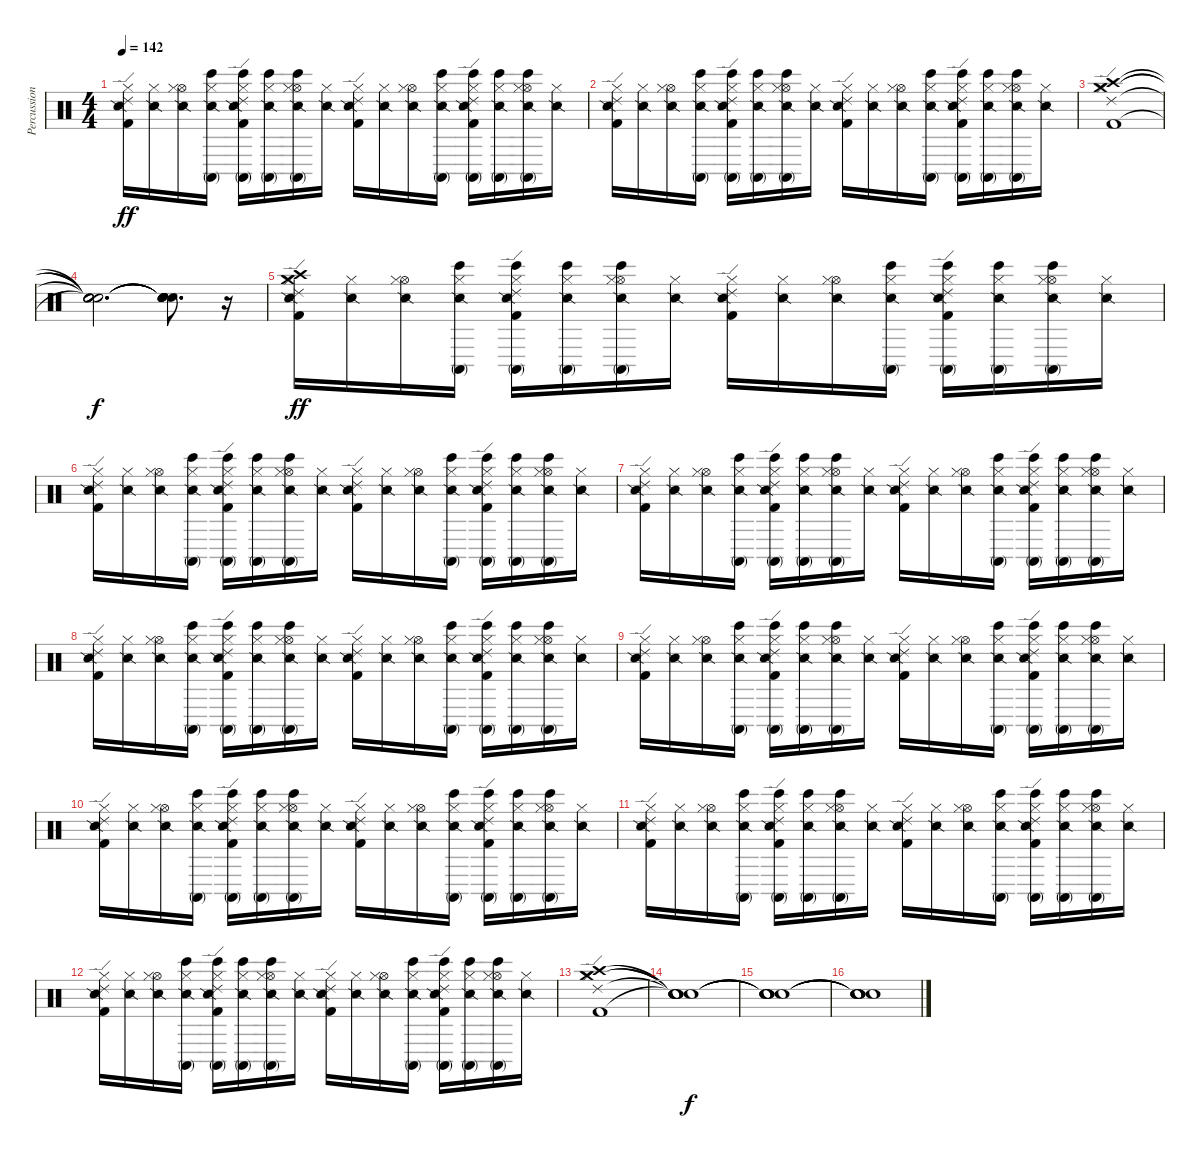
\track ("Percussion" "Percussion") {instrument percussion}
\staff {score}
\articulation defaults
\ts (4 4)
\tempo 142
\clef neutral
\ks c
("Ride (edge) 2" "Hi-Hat (closed)" "Snare (side stick) 2" "Kick (hit) 2").16{dy ff} ("Hi-Hat (closed)" "Snare (side stick) 2").16 ("Hi-Hat (open)" "Hi-Hat (closed)" "Snare (side stick) 2").16 ("Conga high (mute)" "Bongo High (hit)" "Hi-Hat (closed)" "Snare (side stick) 2").16 ("Conga high (mute)" "Bongo High (hit)" "Ride (edge) 2" "Hi-Hat (closed)" "Snare (side stick) 2" "Kick (hit) 2").16 ("Conga high (mute)" "Bongo High (hit)" "Hi-Hat (closed)" "Snare (side stick) 2").16 ("Conga high (mute)" "Bongo High (hit)" "Hi-Hat (open)" "Hi-Hat (closed)" "Snare (side stick) 2").16 ("Hi-Hat (closed)" "Snare (side stick) 2").16 ("Ride (edge) 2" "Hi-Hat (closed)" "Snare (side stick) 2" "Kick (hit) 2").16 ("Hi-Hat (closed)" "Snare (side stick) 2").16 ("Hi-Hat (open)" "Hi-Hat (closed)" "Snare (side stick) 2").16 ("Conga high (mute)" "Bongo High (hit)" "Hi-Hat (closed)" "Snare (side stick) 2").16 ("Conga high (mute)" "Bongo High (hit)" "Ride (edge) 2" "Hi-Hat (closed)" "Snare (side stick) 2" "Kick (hit) 2").16 ("Conga high (mute)" "Bongo High (hit)" "Hi-Hat (closed)" "Snare (side stick) 2").16 ("Conga high (mute)" "Bongo High (hit)" "Hi-Hat (open)" "Hi-Hat (closed)" "Snare (side stick) 2").16 ("Hi-Hat (closed)" "Snare (side stick) 2").16 |
("Ride (edge) 2" "Hi-Hat (closed)" "Snare (side stick) 2" "Kick (hit) 2").16 ("Hi-Hat (closed)" "Snare (side stick) 2").16 ("Hi-Hat (open)" "Hi-Hat (closed)" "Snare (side stick) 2").16 ("Conga high (mute)" "Bongo High (hit)" "Hi-Hat (closed)" "Snare (side stick) 2").16 ("Conga high (mute)" "Bongo High (hit)" "Ride (edge) 2" "Hi-Hat (closed)" "Snare (side stick) 2" "Kick (hit) 2").16 ("Conga high (mute)" "Bongo High (hit)" "Hi-Hat (closed)" "Snare (side stick) 2").16 ("Conga high (mute)" "Bongo High (hit)" "Hi-Hat (open)" "Hi-Hat (closed)" "Snare (side stick) 2").16 ("Hi-Hat (closed)" "Snare (side stick) 2").16 ("Ride (edge) 2" "Hi-Hat (closed)" "Snare (side stick) 2" "Kick (hit) 2").16 ("Hi-Hat (closed)" "Snare (side stick) 2").16 ("Hi-Hat (open)" "Hi-Hat (closed)" "Snare (side stick) 2").16 ("Conga high (mute)" "Bongo High (hit)" "Hi-Hat (closed)" "Snare (side stick) 2").16 ("Conga high (mute)" "Bongo High (hit)" "Ride (edge) 2" "Hi-Hat (closed)" "Snare (side stick) 2" "Kick (hit) 2").16 ("Conga high (mute)" "Bongo High (hit)" "Hi-Hat (closed)" "Snare (side stick) 2").16 ("Conga high (mute)" "Bongo High (hit)" "Hi-Hat (open)" "Hi-Hat (closed)" "Snare (side stick) 2").16 ("Hi-Hat (closed)" "Snare (side stick) 2").16 |
("Ride (edge) 2" "Crash medium (hit)" "Crash high (hit)" "Hi-Hat (closed)" "Kick (hit) 2").1 |
("Snare (hit)"{t} "Snare (hit)"{t} "Snare (hit)"{t} "Snare (hit)"{t} "Snare (hit)"{t}).2{d dy f} ("Snare (hit)"{t} "Snare (hit)"{t} "Snare (hit)"{t} "Snare (hit)"{t} "Snare (hit)"{t}).8{d} r.16 |
("Ride (edge) 2" "Crash medium (hit)" "Crash high (hit)" "Hi-Hat (closed)" "Snare (side stick) 2" "Kick (hit) 2").16{dy ff} ("Hi-Hat (closed)" "Snare (side stick) 2").16 ("Hi-Hat (open)" "Hi-Hat (closed)" "Snare (side stick) 2").16 ("Conga high (mute)" "Bongo High (hit)" "Hi-Hat (closed)" "Snare (side stick) 2").16 ("Conga high (mute)" "Bongo High (hit)" "Ride (edge) 2" "Hi-Hat (closed)" "Snare (side stick) 2" "Kick (hit) 2").16 ("Conga high (mute)" "Bongo High (hit)" "Hi-Hat (closed)" "Snare (side stick) 2").16 ("Conga high (mute)" "Bongo High (hit)" "Hi-Hat (open)" "Hi-Hat (closed)" "Snare (side stick) 2").16 ("Hi-Hat (closed)" "Snare (side stick) 2").16 ("Ride (edge) 2" "Hi-Hat (closed)" "Snare (side stick) 2" "Kick (hit) 2").16 ("Hi-Hat (closed)" "Snare (side stick) 2").16 ("Hi-Hat (open)" "Hi-Hat (closed)" "Snare (side stick) 2").16 ("Conga high (mute)" "Bongo High (hit)" "Hi-Hat (closed)" "Snare (side stick) 2").16 ("Conga high (mute)" "Bongo High (hit)" "Ride (edge) 2" "Hi-Hat (closed)" "Snare (side stick) 2" "Kick (hit) 2").16 ("Conga high (mute)" "Bongo High (hit)" "Hi-Hat (closed)" "Snare (side stick) 2").16 ("Conga high (mute)" "Bongo High (hit)" "Hi-Hat (open)" "Hi-Hat (closed)" "Snare (side stick) 2").16 ("Hi-Hat (closed)" "Snare (side stick) 2").16 |
("Ride (edge) 2" "Hi-Hat (closed)" "Snare (side stick) 2" "Kick (hit) 2").16 ("Hi-Hat (closed)" "Snare (side stick) 2").16 ("Hi-Hat (open)" "Hi-Hat (closed)" "Snare (side stick) 2").16 ("Conga high (mute)" "Bongo High (hit)" "Hi-Hat (closed)" "Snare (side stick) 2").16 ("Conga high (mute)" "Bongo High (hit)" "Ride (edge) 2" "Hi-Hat (closed)" "Snare (side stick) 2" "Kick (hit) 2").16 ("Conga high (mute)" "Bongo High (hit)" "Hi-Hat (closed)" "Snare (side stick) 2").16 ("Conga high (mute)" "Bongo High (hit)" "Hi-Hat (open)" "Hi-Hat (closed)" "Snare (side stick) 2").16 ("Hi-Hat (closed)" "Snare (side stick) 2").16 ("Ride (edge) 2" "Hi-Hat (closed)" "Snare (side stick) 2" "Kick (hit) 2").16 ("Hi-Hat (closed)" "Snare (side stick) 2").16 ("Hi-Hat (open)" "Hi-Hat (closed)" "Snare (side stick) 2").16 ("Conga high (mute)" "Bongo High (hit)" "Hi-Hat (closed)" "Snare (side stick) 2").16 ("Conga high (mute)" "Bongo High (hit)" "Ride (edge) 2" "Hi-Hat (closed)" "Snare (side stick) 2" "Kick (hit) 2").16 ("Conga high (mute)" "Bongo High (hit)" "Hi-Hat (closed)" "Snare (side stick) 2").16 ("Conga high (mute)" "Bongo High (hit)" "Hi-Hat (open)" "Hi-Hat (closed)" "Snare (side stick) 2").16 ("Hi-Hat (closed)" "Snare (side stick) 2").16 |
("Ride (edge) 2" "Hi-Hat (closed)" "Snare (side stick) 2" "Kick (hit) 2").16 ("Hi-Hat (closed)" "Snare (side stick) 2").16 ("Hi-Hat (open)" "Hi-Hat (closed)" "Snare (side stick) 2").16 ("Conga high (mute)" "Bongo High (hit)" "Hi-Hat (closed)" "Snare (side stick) 2").16 ("Conga high (mute)" "Bongo High (hit)" "Ride (edge) 2" "Hi-Hat (closed)" "Snare (side stick) 2" "Kick (hit) 2").16 ("Conga high (mute)" "Bongo High (hit)" "Hi-Hat (closed)" "Snare (side stick) 2").16 ("Conga high (mute)" "Bongo High (hit)" "Hi-Hat (open)" "Hi-Hat (closed)" "Snare (side stick) 2").16 ("Hi-Hat (closed)" "Snare (side stick) 2").16 ("Ride (edge) 2" "Hi-Hat (closed)" "Snare (side stick) 2" "Kick (hit) 2").16 ("Hi-Hat (closed)" "Snare (side stick) 2").16 ("Hi-Hat (open)" "Hi-Hat (closed)" "Snare (side stick) 2").16 ("Conga high (mute)" "Bongo High (hit)" "Hi-Hat (closed)" "Snare (side stick) 2").16 ("Conga high (mute)" "Bongo High (hit)" "Ride (edge) 2" "Hi-Hat (closed)" "Snare (side stick) 2" "Kick (hit) 2").16 ("Conga high (mute)" "Bongo High (hit)" "Hi-Hat (closed)" "Snare (side stick) 2").16 ("Conga high (mute)" "Bongo High (hit)" "Hi-Hat (open)" "Hi-Hat (closed)" "Snare (side stick) 2").16 ("Hi-Hat (closed)" "Snare (side stick) 2").16 |
("Ride (edge) 2" "Hi-Hat (closed)" "Snare (side stick) 2" "Kick (hit) 2").16 ("Hi-Hat (closed)" "Snare (side stick) 2").16 ("Hi-Hat (open)" "Hi-Hat (closed)" "Snare (side stick) 2").16 ("Conga high (mute)" "Bongo High (hit)" "Hi-Hat (closed)" "Snare (side stick) 2").16 ("Conga high (mute)" "Bongo High (hit)" "Ride (edge) 2" "Hi-Hat (closed)" "Snare (side stick) 2" "Kick (hit) 2").16 ("Conga high (mute)" "Bongo High (hit)" "Hi-Hat (closed)" "Snare (side stick) 2").16 ("Conga high (mute)" "Bongo High (hit)" "Hi-Hat (open)" "Hi-Hat (closed)" "Snare (side stick) 2").16 ("Hi-Hat (closed)" "Snare (side stick) 2").16 ("Ride (edge) 2" "Hi-Hat (closed)" "Snare (side stick) 2" "Kick (hit) 2").16 ("Hi-Hat (closed)" "Snare (side stick) 2").16 ("Hi-Hat (open)" "Hi-Hat (closed)" "Snare (side stick) 2").16 ("Conga high (mute)" "Bongo High (hit)" "Hi-Hat (closed)" "Snare (side stick) 2").16 ("Conga high (mute)" "Bongo High (hit)" "Ride (edge) 2" "Hi-Hat (closed)" "Snare (side stick) 2" "Kick (hit) 2").16 ("Conga high (mute)" "Bongo High (hit)" "Hi-Hat (closed)" "Snare (side stick) 2").16 ("Conga high (mute)" "Bongo High (hit)" "Hi-Hat (open)" "Hi-Hat (closed)" "Snare (side stick) 2").16 ("Hi-Hat (closed)" "Snare (side stick) 2").16 |
("Ride (edge) 2" "Hi-Hat (closed)" "Snare (side stick) 2" "Kick (hit) 2").16 ("Hi-Hat (closed)" "Snare (side stick) 2").16 ("Hi-Hat (open)" "Hi-Hat (closed)" "Snare (side stick) 2").16 ("Conga high (mute)" "Bongo High (hit)" "Hi-Hat (closed)" "Snare (side stick) 2").16 ("Conga high (mute)" "Bongo High (hit)" "Ride (edge) 2" "Hi-Hat (closed)" "Snare (side stick) 2" "Kick (hit) 2").16 ("Conga high (mute)" "Bongo High (hit)" "Hi-Hat (closed)" "Snare (side stick) 2").16 ("Conga high (mute)" "Bongo High (hit)" "Hi-Hat (open)" "Hi-Hat (closed)" "Snare (side stick) 2").16 ("Hi-Hat (closed)" "Snare (side stick) 2").16 ("Ride (edge) 2" "Hi-Hat (closed)" "Snare (side stick) 2" "Kick (hit) 2").16 ("Hi-Hat (closed)" "Snare (side stick) 2").16 ("Hi-Hat (open)" "Hi-Hat (closed)" "Snare (side stick) 2").16 ("Conga high (mute)" "Bongo High (hit)" "Hi-Hat (closed)" "Snare (side stick) 2").16 ("Conga high (mute)" "Bongo High (hit)" "Ride (edge) 2" "Hi-Hat (closed)" "Snare (side stick) 2" "Kick (hit) 2").16 ("Conga high (mute)" "Bongo High (hit)" "Hi-Hat (closed)" "Snare (side stick) 2").16 ("Conga high (mute)" "Bongo High (hit)" "Hi-Hat (open)" "Hi-Hat (closed)" "Snare (side stick) 2").16 ("Hi-Hat (closed)" "Snare (side stick) 2").16 |
("Ride (edge) 2" "Hi-Hat (closed)" "Snare (side stick) 2" "Kick (hit) 2").16 ("Hi-Hat (closed)" "Snare (side stick) 2").16 ("Hi-Hat (open)" "Hi-Hat (closed)" "Snare (side stick) 2").16 ("Conga high (mute)" "Bongo High (hit)" "Hi-Hat (closed)" "Snare (side stick) 2").16 ("Conga high (mute)" "Bongo High (hit)" "Ride (edge) 2" "Hi-Hat (closed)" "Snare (side stick) 2" "Kick (hit) 2").16 ("Conga high (mute)" "Bongo High (hit)" "Hi-Hat (closed)" "Snare (side stick) 2").16 ("Conga high (mute)" "Bongo High (hit)" "Hi-Hat (open)" "Hi-Hat (closed)" "Snare (side stick) 2").16 ("Hi-Hat (closed)" "Snare (side stick) 2").16 ("Ride (edge) 2" "Hi-Hat (closed)" "Snare (side stick) 2" "Kick (hit) 2").16 ("Hi-Hat (closed)" "Snare (side stick) 2").16 ("Hi-Hat (open)" "Hi-Hat (closed)" "Snare (side stick) 2").16 ("Conga high (mute)" "Bongo High (hit)" "Hi-Hat (closed)" "Snare (side stick) 2").16 ("Conga high (mute)" "Bongo High (hit)" "Ride (edge) 2" "Hi-Hat (closed)" "Snare (side stick) 2" "Kick (hit) 2").16 ("Conga high (mute)" "Bongo High (hit)" "Hi-Hat (closed)" "Snare (side stick) 2").16 ("Conga high (mute)" "Bongo High (hit)" "Hi-Hat (open)" "Hi-Hat (closed)" "Snare (side stick) 2").16 ("Hi-Hat (closed)" "Snare (side stick) 2").16 |
("Ride (edge) 2" "Hi-Hat (closed)" "Snare (side stick) 2" "Kick (hit) 2").16 ("Hi-Hat (closed)" "Snare (side stick) 2").16 ("Hi-Hat (open)" "Hi-Hat (closed)" "Snare (side stick) 2").16 ("Conga high (mute)" "Bongo High (hit)" "Hi-Hat (closed)" "Snare (side stick) 2").16 ("Conga high (mute)" "Bongo High (hit)" "Ride (edge) 2" "Hi-Hat (closed)" "Snare (side stick) 2" "Kick (hit) 2").16 ("Conga high (mute)" "Bongo High (hit)" "Hi-Hat (closed)" "Snare (side stick) 2").16 ("Conga high (mute)" "Bongo High (hit)" "Hi-Hat (open)" "Hi-Hat (closed)" "Snare (side stick) 2").16 ("Hi-Hat (closed)" "Snare (side stick) 2").16 ("Ride (edge) 2" "Hi-Hat (closed)" "Snare (side stick) 2" "Kick (hit) 2").16 ("Hi-Hat (closed)" "Snare (side stick) 2").16 ("Hi-Hat (open)" "Hi-Hat (closed)" "Snare (side stick) 2").16 ("Conga high (mute)" "Bongo High (hit)" "Hi-Hat (closed)" "Snare (side stick) 2").16 ("Conga high (mute)" "Bongo High (hit)" "Ride (edge) 2" "Hi-Hat (closed)" "Snare (side stick) 2" "Kick (hit) 2").16 ("Conga high (mute)" "Bongo High (hit)" "Hi-Hat (closed)" "Snare (side stick) 2").16 ("Conga high (mute)" "Bongo High (hit)" "Hi-Hat (open)" "Hi-Hat (closed)" "Snare (side stick) 2").16 ("Hi-Hat (closed)" "Snare (side stick) 2").16 |
("Ride (edge) 2" "Hi-Hat (closed)" "Snare (side stick) 2" "Kick (hit) 2").16 ("Hi-Hat (closed)" "Snare (side stick) 2").16 ("Hi-Hat (open)" "Hi-Hat (closed)" "Snare (side stick) 2").16 ("Conga high (mute)" "Bongo High (hit)" "Hi-Hat (closed)" "Snare (side stick) 2").16 ("Conga high (mute)" "Bongo High (hit)" "Ride (edge) 2" "Hi-Hat (closed)" "Snare (side stick) 2" "Kick (hit) 2").16 ("Conga high (mute)" "Bongo High (hit)" "Hi-Hat (closed)" "Snare (side stick) 2").16 ("Conga high (mute)" "Bongo High (hit)" "Hi-Hat (open)" "Hi-Hat (closed)" "Snare (side stick) 2").16 ("Hi-Hat (closed)" "Snare (side stick) 2").16 ("Ride (edge) 2" "Hi-Hat (closed)" "Snare (side stick) 2" "Kick (hit) 2").16 ("Hi-Hat (closed)" "Snare (side stick) 2").16 ("Hi-Hat (open)" "Hi-Hat (closed)" "Snare (side stick) 2").16 ("Conga high (mute)" "Bongo High (hit)" "Hi-Hat (closed)" "Snare (side stick) 2").16 ("Conga high (mute)" "Bongo High (hit)" "Ride (edge) 2" "Hi-Hat (closed)" "Snare (side stick) 2" "Kick (hit) 2").16 ("Conga high (mute)" "Bongo High (hit)" "Hi-Hat (closed)" "Snare (side stick) 2").16 ("Conga high (mute)" "Bongo High (hit)" "Hi-Hat (open)" "Hi-Hat (closed)" "Snare (side stick) 2").16 ("Hi-Hat (closed)" "Snare (side stick) 2").16 |
("Ride (edge) 2" "Crash medium (hit)" "Crash high (hit)" "Hi-Hat (closed)" "Kick (hit) 2").1 |
("Snare (hit)"{t} "Snare (hit)"{t} "Snare (hit)"{t} "Snare (hit)"{t} "Snare (hit)"{t}).1{dy f} |
("Snare (hit)"{t} "Snare (hit)"{t} "Snare (hit)"{t} "Snare (hit)"{t} "Snare (hit)"{t}).1 |
("Snare (hit)"{t} "Snare (hit)"{t} "Snare (hit)"{t} "Snare (hit)"{t} "Snare (hit)"{t}).1
